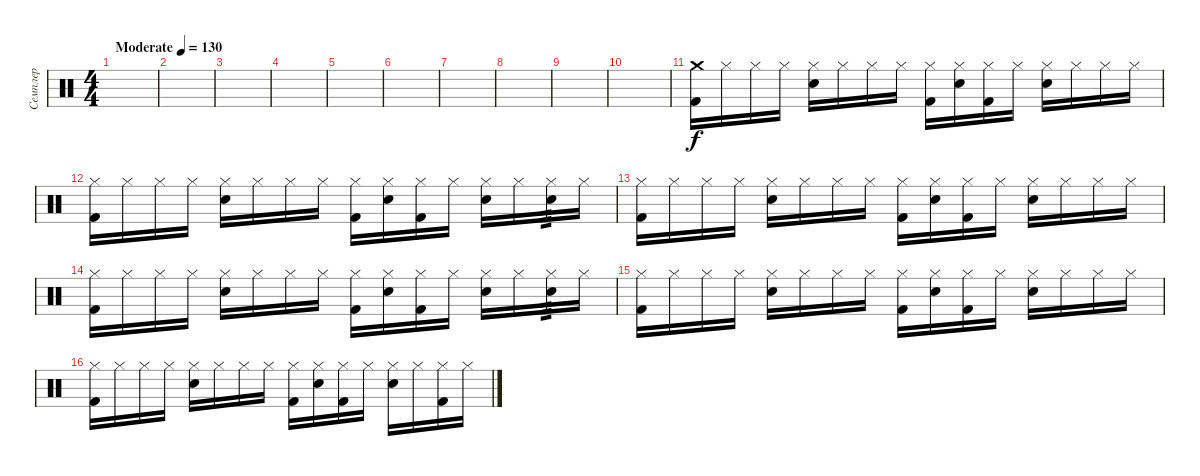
\track ("Семплер" "Семплер") {instrument percussion}
\staff {score}
\articulation defaults
\ts (4 4)
\tempo (130 "Moderate")
\clef neutral
\ks c
|
|
|
|
|
|
|
|
|
|
("Crash medium (hit)" "Kick (hit) 2").16 "Hi-Hat (closed)".16 "Hi-Hat (closed)".16 "Hi-Hat (closed)".16 ("Hi-Hat (closed)" "Snare (hit) 2").16 "Hi-Hat (closed)".16 "Hi-Hat (closed)".16 "Hi-Hat (closed)".16 ("Hi-Hat (closed)" "Kick (hit) 2").16 ("Hi-Hat (closed)" "Snare (hit) 2").16 ("Hi-Hat (closed)" "Kick (hit) 2").16 "Hi-Hat (closed)".16 ("Hi-Hat (closed)" "Snare (hit) 2").16 "Hi-Hat (closed)".16 "Hi-Hat (closed)".16 "Hi-Hat (closed)".16 |
("Hi-Hat (closed)" "Kick (hit) 2").16 "Hi-Hat (closed)".16 "Hi-Hat (closed)".16 "Hi-Hat (closed)".16 ("Hi-Hat (closed)" "Snare (hit) 2").16 "Hi-Hat (closed)".16 "Hi-Hat (closed)".16 "Hi-Hat (closed)".16 ("Hi-Hat (closed)" "Kick (hit) 2").16 ("Hi-Hat (closed)" "Snare (hit) 2").16 ("Hi-Hat (closed)" "Kick (hit) 2").16 "Hi-Hat (closed)".16 ("Hi-Hat (closed)" "Snare (hit) 2").16 "Hi-Hat (closed)".16 ("Hi-Hat (closed)" "Snare (hit) 2").16{tp 3} "Hi-Hat (closed)".16 |
("Hi-Hat (closed)" "Kick (hit) 2").16 "Hi-Hat (closed)".16 "Hi-Hat (closed)".16 "Hi-Hat (closed)".16 ("Hi-Hat (closed)" "Snare (hit) 2").16 "Hi-Hat (closed)".16 "Hi-Hat (closed)".16 "Hi-Hat (closed)".16 ("Hi-Hat (closed)" "Kick (hit) 2").16 ("Hi-Hat (closed)" "Snare (hit) 2").16 ("Hi-Hat (closed)" "Kick (hit) 2").16 "Hi-Hat (closed)".16 ("Hi-Hat (closed)" "Snare (hit) 2").16 "Hi-Hat (closed)".16 "Hi-Hat (closed)".16 "Hi-Hat (closed)".16 |
("Hi-Hat (closed)" "Kick (hit) 2").16 "Hi-Hat (closed)".16 "Hi-Hat (closed)".16 "Hi-Hat (closed)".16 ("Hi-Hat (closed)" "Snare (hit) 2").16 "Hi-Hat (closed)".16 "Hi-Hat (closed)".16 "Hi-Hat (closed)".16 ("Hi-Hat (closed)" "Kick (hit) 2").16 ("Hi-Hat (closed)" "Snare (hit) 2").16 ("Hi-Hat (closed)" "Kick (hit) 2").16 "Hi-Hat (closed)".16 ("Hi-Hat (closed)" "Snare (hit) 2").16 "Hi-Hat (closed)".16 ("Hi-Hat (closed)" "Snare (hit) 2").16{tp 3} "Hi-Hat (closed)".16 |
("Hi-Hat (closed)" "Kick (hit) 2").16 "Hi-Hat (closed)".16 "Hi-Hat (closed)".16 "Hi-Hat (closed)".16 ("Hi-Hat (closed)" "Snare (hit) 2").16 "Hi-Hat (closed)".16 "Hi-Hat (closed)".16 "Hi-Hat (closed)".16 ("Hi-Hat (closed)" "Kick (hit) 2").16 ("Hi-Hat (closed)" "Snare (hit) 2").16 ("Hi-Hat (closed)" "Kick (hit) 2").16 "Hi-Hat (closed)".16 ("Hi-Hat (closed)" "Snare (hit) 2").16 "Hi-Hat (closed)".16 "Hi-Hat (closed)".16 "Hi-Hat (closed)".16 |
("Hi-Hat (closed)" "Kick (hit) 2").16 "Hi-Hat (closed)".16 "Hi-Hat (closed)".16 "Hi-Hat (closed)".16 ("Hi-Hat (closed)" "Snare (hit) 2").16 "Hi-Hat (closed)".16 "Hi-Hat (closed)".16 "Hi-Hat (closed)".16 ("Hi-Hat (closed)" "Kick (hit) 2").16 ("Hi-Hat (closed)" "Snare (hit) 2").16 ("Hi-Hat (closed)" "Kick (hit) 2").16 "Hi-Hat (closed)".16 ("Hi-Hat (closed)" "Snare (hit) 2").16 "Hi-Hat (closed)".16 ("Hi-Hat (closed)" "Kick (hit) 2").16 "Hi-Hat (closed)".16
